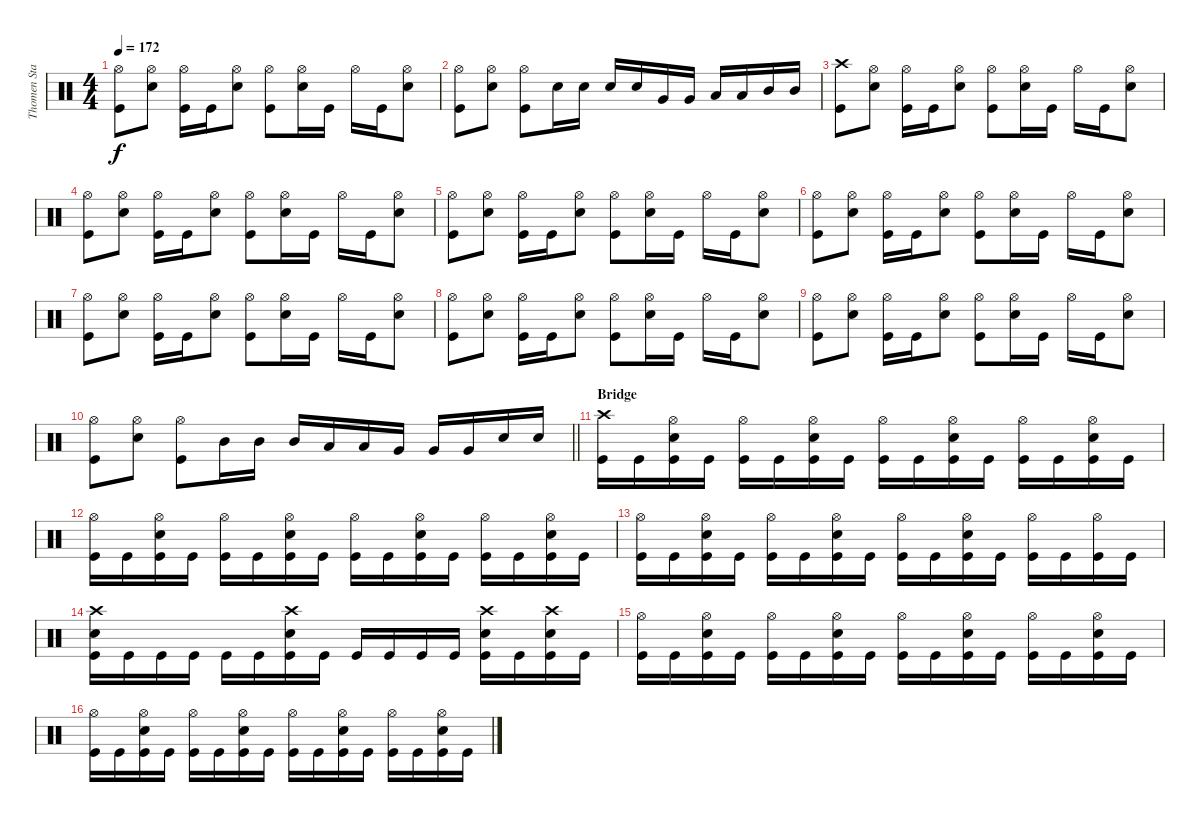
\track ("Thomen Stauch" "Thomen Sta") {instrument percussion}
\staff {score}
\articulation defaults
\ts (4 4)
\tempo 172
\clef neutral
\ks c
("Hi-Hat (open)" "Kick (hit)").8{dy f} ("Hi-Hat (open)" "Snare (hit) 2").8 ("Hi-Hat (open)" "Kick (hit)").16 "Kick (hit)".16 ("Hi-Hat (open)" "Snare (hit) 2").8 ("Hi-Hat (open)" "Kick (hit)").8 ("Hi-Hat (open)" "Snare (hit) 2").16 "Kick (hit)".16 "Hi-Hat (open)".16 "Kick (hit)".16 ("Hi-Hat (open)" "Snare (hit) 2").8 |
("Hi-Hat (open)" "Kick (hit)").8 ("Hi-Hat (open)" "Snare (hit) 2").8 ("Hi-Hat (open)" "Kick (hit)").8 "Snare (hit) 2".16 "Snare (hit) 2".16 "Snare (hit) 2".16 "Snare (hit) 2".16 "Very Low Tom (hit)".16 "Very Low Tom (hit)".16 "Low Tom (hit)".16 "Low Tom (hit)".16 "Mid Tom (hit)".16 "Mid Tom (hit)".16 |
("Crash high (hit)" "Kick (hit)").8 ("Hi-Hat (open)" "Snare (hit) 2").8 ("Hi-Hat (open)" "Kick (hit)").16 "Kick (hit)".16 ("Hi-Hat (open)" "Snare (hit) 2").8 ("Hi-Hat (open)" "Kick (hit)").8 ("Hi-Hat (open)" "Snare (hit) 2").16 "Kick (hit)".16 "Hi-Hat (open)".16 "Kick (hit)".16 ("Hi-Hat (open)" "Snare (hit) 2").8 |
("Hi-Hat (open)" "Kick (hit)").8 ("Hi-Hat (open)" "Snare (hit) 2").8 ("Hi-Hat (open)" "Kick (hit)").16 "Kick (hit)".16 ("Hi-Hat (open)" "Snare (hit) 2").8 ("Hi-Hat (open)" "Kick (hit)").8 ("Hi-Hat (open)" "Snare (hit) 2").16 "Kick (hit)".16 "Hi-Hat (open)".16 "Kick (hit)".16 ("Hi-Hat (open)" "Snare (hit) 2").8 |
("Hi-Hat (open)" "Kick (hit)").8 ("Hi-Hat (open)" "Snare (hit) 2").8 ("Hi-Hat (open)" "Kick (hit)").16 "Kick (hit)".16 ("Hi-Hat (open)" "Snare (hit) 2").8 ("Hi-Hat (open)" "Kick (hit)").8 ("Hi-Hat (open)" "Snare (hit) 2").16 "Kick (hit)".16 "Hi-Hat (open)".16 "Kick (hit)".16 ("Hi-Hat (open)" "Snare (hit) 2").8 |
("Hi-Hat (open)" "Kick (hit)").8 ("Hi-Hat (open)" "Snare (hit) 2").8 ("Hi-Hat (open)" "Kick (hit)").16 "Kick (hit)".16 ("Hi-Hat (open)" "Snare (hit) 2").8 ("Hi-Hat (open)" "Kick (hit)").8 ("Hi-Hat (open)" "Snare (hit) 2").16 "Kick (hit)".16 "Hi-Hat (open)".16 "Kick (hit)".16 ("Hi-Hat (open)" "Snare (hit) 2").8 |
("Hi-Hat (open)" "Kick (hit)").8 ("Hi-Hat (open)" "Snare (hit) 2").8 ("Hi-Hat (open)" "Kick (hit)").16 "Kick (hit)".16 ("Hi-Hat (open)" "Snare (hit) 2").8 ("Hi-Hat (open)" "Kick (hit)").8 ("Hi-Hat (open)" "Snare (hit) 2").16 "Kick (hit)".16 "Hi-Hat (open)".16 "Kick (hit)".16 ("Hi-Hat (open)" "Snare (hit) 2").8 |
("Hi-Hat (open)" "Kick (hit)").8 ("Hi-Hat (open)" "Snare (hit) 2").8 ("Hi-Hat (open)" "Kick (hit)").16 "Kick (hit)".16 ("Hi-Hat (open)" "Snare (hit) 2").8 ("Hi-Hat (open)" "Kick (hit)").8 ("Hi-Hat (open)" "Snare (hit) 2").16 "Kick (hit)".16 "Hi-Hat (open)".16 "Kick (hit)".16 ("Hi-Hat (open)" "Snare (hit) 2").8 |
("Hi-Hat (open)" "Kick (hit)").8 ("Hi-Hat (open)" "Snare (hit) 2").8 ("Hi-Hat (open)" "Kick (hit)").16 "Kick (hit)".16 ("Hi-Hat (open)" "Snare (hit) 2").8 ("Hi-Hat (open)" "Kick (hit)").8 ("Hi-Hat (open)" "Snare (hit) 2").16 "Kick (hit)".16 "Hi-Hat (open)".16 "Kick (hit)".16 ("Hi-Hat (open)" "Snare (hit) 2").8 |
\barLineRight lightlight
("Hi-Hat (open)" "Kick (hit)").8 ("Hi-Hat (open)" "Snare (hit) 2").8 ("Hi-Hat (open)" "Kick (hit)").8 "Mid Tom (hit)".16 "Mid Tom (hit)".16 "Mid Tom (hit)".16 "Low Tom (hit)".16 "Low Tom (hit)".16 "Very Low Tom (hit)".16 "Very Low Tom (hit)".16 "Very Low Tom (hit)".16 "Snare (hit) 2".16 "Snare (hit) 2".16 |
\section ("" "Bridge")
("Crash high (hit)" "Kick (hit)").16 "Kick (hit)".16 ("Hi-Hat (open)" "Snare (hit) 2" "Kick (hit)").16 "Kick (hit)".16 ("Hi-Hat (open)" "Kick (hit)").16 "Kick (hit)".16 ("Hi-Hat (open)" "Snare (hit) 2" "Kick (hit)").16 "Kick (hit)".16 ("Hi-Hat (open)" "Kick (hit)").16 "Kick (hit)".16 ("Hi-Hat (open)" "Snare (hit) 2" "Kick (hit)").16 "Kick (hit)".16 ("Hi-Hat (open)" "Kick (hit)").16 "Kick (hit)".16 ("Hi-Hat (open)" "Snare (hit) 2" "Kick (hit)").16 "Kick (hit)".16 |
("Hi-Hat (open)" "Kick (hit)").16 "Kick (hit)".16 ("Hi-Hat (open)" "Snare (hit) 2" "Kick (hit)").16 "Kick (hit)".16 ("Hi-Hat (open)" "Kick (hit)").16 "Kick (hit)".16 ("Hi-Hat (open)" "Snare (hit) 2" "Kick (hit)").16 "Kick (hit)".16 ("Hi-Hat (open)" "Kick (hit)").16 "Kick (hit)".16 ("Hi-Hat (open)" "Snare (hit) 2" "Kick (hit)").16 "Kick (hit)".16 ("Hi-Hat (open)" "Kick (hit)").16 "Kick (hit)".16 ("Hi-Hat (open)" "Snare (hit) 2" "Kick (hit)").16 "Kick (hit)".16 |
("Hi-Hat (open)" "Kick (hit)").16 "Kick (hit)".16 ("Hi-Hat (open)" "Snare (hit) 2" "Kick (hit)").16 "Kick (hit)".16 ("Hi-Hat (open)" "Kick (hit)").16 "Kick (hit)".16 ("Hi-Hat (open)" "Snare (hit) 2" "Kick (hit)").16 "Kick (hit)".16 ("Hi-Hat (open)" "Kick (hit)").16 "Kick (hit)".16 ("Hi-Hat (open)" "Snare (hit) 2" "Kick (hit)").16 "Kick (hit)".16 ("Hi-Hat (open)" "Kick (hit)").16 "Kick (hit)".16 ("Hi-Hat (open)" "Kick (hit)").16 "Kick (hit)".16 |
("Crash high (hit)" "Snare (hit) 2" "Kick (hit)").16 "Kick (hit)".16 "Kick (hit)".16 "Kick (hit)".16 "Kick (hit)".16 "Kick (hit)".16 ("Crash high (hit)" "Snare (hit) 2" "Kick (hit)").16 "Kick (hit)".16 "Kick (hit)".16 "Kick (hit)".16 "Kick (hit)".16 "Kick (hit)".16 ("Crash high (hit)" "Snare (hit) 2" "Kick (hit)").16 "Kick (hit)".16 ("Crash high (hit)" "Snare (hit) 2" "Kick (hit)").16 "Kick (hit)".16 |
("Hi-Hat (open)" "Kick (hit)").16 "Kick (hit)".16 ("Hi-Hat (open)" "Snare (hit) 2" "Kick (hit)").16 "Kick (hit)".16 ("Hi-Hat (open)" "Kick (hit)").16 "Kick (hit)".16 ("Hi-Hat (open)" "Snare (hit) 2" "Kick (hit)").16 "Kick (hit)".16 ("Hi-Hat (open)" "Kick (hit)").16 "Kick (hit)".16 ("Hi-Hat (open)" "Snare (hit) 2" "Kick (hit)").16 "Kick (hit)".16 ("Hi-Hat (open)" "Kick (hit)").16 "Kick (hit)".16 ("Hi-Hat (open)" "Snare (hit) 2" "Kick (hit)").16 "Kick (hit)".16 |
("Hi-Hat (open)" "Kick (hit)").16 "Kick (hit)".16 ("Hi-Hat (open)" "Snare (hit) 2" "Kick (hit)").16 "Kick (hit)".16 ("Hi-Hat (open)" "Kick (hit)").16 "Kick (hit)".16 ("Hi-Hat (open)" "Snare (hit) 2" "Kick (hit)").16 "Kick (hit)".16 ("Hi-Hat (open)" "Kick (hit)").16 "Kick (hit)".16 ("Hi-Hat (open)" "Snare (hit) 2" "Kick (hit)").16 "Kick (hit)".16 ("Hi-Hat (open)" "Kick (hit)").16 "Kick (hit)".16 ("Hi-Hat (open)" "Snare (hit) 2" "Kick (hit)").16 "Kick (hit)".16
